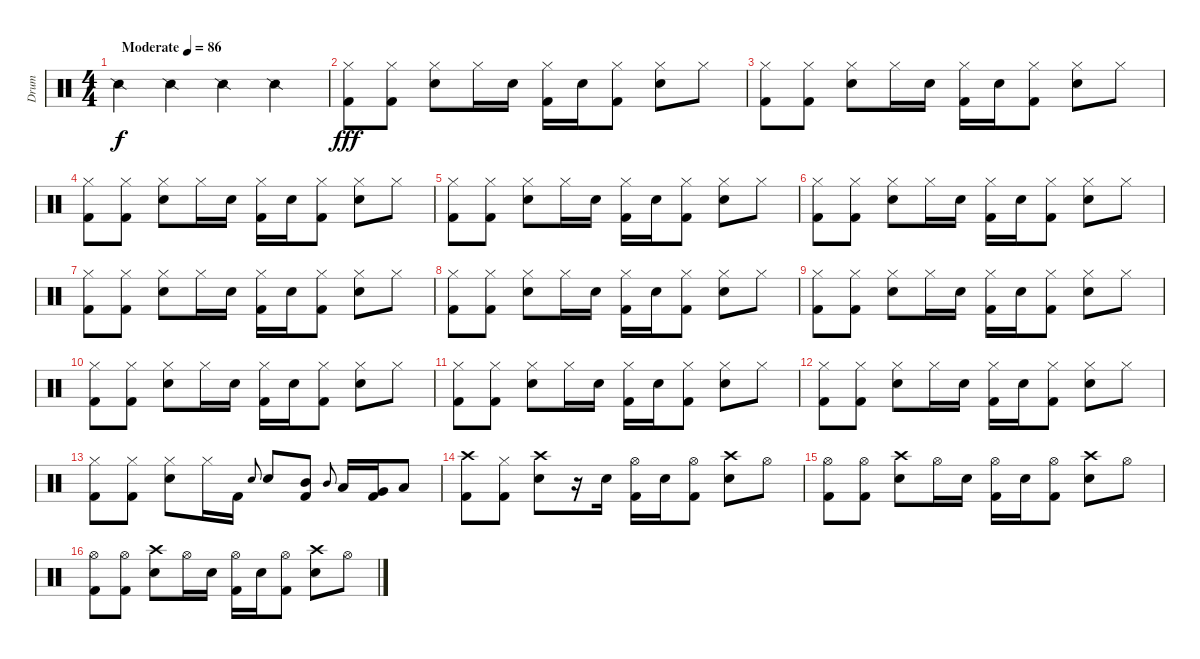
\track ("Drum" "Drum") {instrument percussion}
\staff {score}
\articulation defaults
\ts (4 4)
\tempo (86 "Moderate")
\clef neutral
\ks c "Snare (side stick) 2".4{dy f} "Snare (side stick) 2".4 "Snare (side stick) 2".4 "Snare (side stick) 2".4
|
("Hi-Hat (closed)" "Kick (hit) 2").8{dy fff} ("Hi-Hat (closed)" "Kick (hit) 2").8 ("Hi-Hat (closed)" "Electric Snare (hit)").8 "Hi-Hat (closed)".16 "Electric Snare (hit)".16 ("Hi-Hat (closed)" "Kick (hit) 2").16 "Electric Snare (hit)".16 ("Hi-Hat (closed)" "Kick (hit) 2").8 ("Hi-Hat (closed)" "Electric Snare (hit)").8 "Hi-Hat (closed)".8 |
("Hi-Hat (closed)" "Kick (hit) 2").8 ("Hi-Hat (closed)" "Kick (hit) 2").8 ("Hi-Hat (closed)" "Electric Snare (hit)").8 "Hi-Hat (closed)".16 "Electric Snare (hit)".16 ("Hi-Hat (closed)" "Kick (hit) 2").16 "Electric Snare (hit)".16 ("Hi-Hat (closed)" "Kick (hit) 2").8 ("Hi-Hat (closed)" "Electric Snare (hit)").8 "Hi-Hat (closed)".8 |
("Hi-Hat (closed)" "Kick (hit) 2").8 ("Hi-Hat (closed)" "Kick (hit) 2").8 ("Hi-Hat (closed)" "Electric Snare (hit)").8 "Hi-Hat (closed)".16 "Electric Snare (hit)".16 ("Hi-Hat (closed)" "Kick (hit) 2").16 "Electric Snare (hit)".16 ("Hi-Hat (closed)" "Kick (hit) 2").8 ("Hi-Hat (closed)" "Electric Snare (hit)").8 "Hi-Hat (closed)".8 |
("Hi-Hat (closed)" "Kick (hit) 2").8 ("Hi-Hat (closed)" "Kick (hit) 2").8 ("Hi-Hat (closed)" "Electric Snare (hit)").8 "Hi-Hat (closed)".16 "Electric Snare (hit)".16 ("Hi-Hat (closed)" "Kick (hit) 2").16 "Electric Snare (hit)".16 ("Hi-Hat (closed)" "Kick (hit) 2").8 ("Hi-Hat (closed)" "Electric Snare (hit)").8 "Hi-Hat (closed)".8 |
("Hi-Hat (closed)" "Kick (hit) 2").8 ("Hi-Hat (closed)" "Kick (hit) 2").8 ("Hi-Hat (closed)" "Electric Snare (hit)").8 "Hi-Hat (closed)".16 "Electric Snare (hit)".16 ("Hi-Hat (closed)" "Kick (hit) 2").16 "Electric Snare (hit)".16 ("Hi-Hat (closed)" "Kick (hit) 2").8 ("Hi-Hat (closed)" "Electric Snare (hit)").8 "Hi-Hat (closed)".8 |
("Hi-Hat (closed)" "Kick (hit) 2").8 ("Hi-Hat (closed)" "Kick (hit) 2").8 ("Hi-Hat (closed)" "Electric Snare (hit)").8 "Hi-Hat (closed)".16 "Electric Snare (hit)".16 ("Hi-Hat (closed)" "Kick (hit) 2").16 "Electric Snare (hit)".16 ("Hi-Hat (closed)" "Kick (hit) 2").8 ("Hi-Hat (closed)" "Electric Snare (hit)").8 "Hi-Hat (closed)".8 |
("Hi-Hat (closed)" "Kick (hit) 2").8 ("Hi-Hat (closed)" "Kick (hit) 2").8 ("Hi-Hat (closed)" "Electric Snare (hit)").8 "Hi-Hat (closed)".16 "Electric Snare (hit)".16 ("Hi-Hat (closed)" "Kick (hit) 2").16 "Electric Snare (hit)".16 ("Hi-Hat (closed)" "Kick (hit) 2").8 ("Hi-Hat (closed)" "Electric Snare (hit)").8 "Hi-Hat (closed)".8 |
("Hi-Hat (closed)" "Kick (hit) 2").8 ("Hi-Hat (closed)" "Kick (hit) 2").8 ("Hi-Hat (closed)" "Electric Snare (hit)").8 "Hi-Hat (closed)".16 "Electric Snare (hit)".16 ("Hi-Hat (closed)" "Kick (hit) 2").16 "Electric Snare (hit)".16 ("Hi-Hat (closed)" "Kick (hit) 2").8 ("Hi-Hat (closed)" "Electric Snare (hit)").8 "Hi-Hat (closed)".8 |
("Hi-Hat (closed)" "Kick (hit) 2").8 ("Hi-Hat (closed)" "Kick (hit) 2").8 ("Hi-Hat (closed)" "Electric Snare (hit)").8 "Hi-Hat (closed)".16 "Electric Snare (hit)".16 ("Hi-Hat (closed)" "Kick (hit) 2").16 "Electric Snare (hit)".16 ("Hi-Hat (closed)" "Kick (hit) 2").8 ("Hi-Hat (closed)" "Electric Snare (hit)").8 "Hi-Hat (closed)".8 |
("Hi-Hat (closed)" "Kick (hit) 2").8 ("Hi-Hat (closed)" "Kick (hit) 2").8 ("Hi-Hat (closed)" "Electric Snare (hit)").8 "Hi-Hat (closed)".16 "Electric Snare (hit)".16 ("Hi-Hat (closed)" "Kick (hit) 2").16 "Electric Snare (hit)".16 ("Hi-Hat (closed)" "Kick (hit) 2").8 ("Hi-Hat (closed)" "Electric Snare (hit)").8 "Hi-Hat (closed)".8 |
("Hi-Hat (closed)" "Kick (hit) 2").8 ("Hi-Hat (closed)" "Kick (hit) 2").8 ("Hi-Hat (closed)" "Electric Snare (hit)").8 "Hi-Hat (closed)".16 "Electric Snare (hit)".16 ("Hi-Hat (closed)" "Kick (hit) 2").16 "Electric Snare (hit)".16 ("Hi-Hat (closed)" "Kick (hit) 2").8 ("Hi-Hat (closed)" "Electric Snare (hit)").8 "Hi-Hat (closed)".8 |
("Hi-Hat (closed)" "Kick (hit) 2").8 ("Hi-Hat (closed)" "Kick (hit) 2").8 ("Hi-Hat (closed)" "Electric Snare (hit)").8 "Hi-Hat (closed)".16 "Kick (hit) 2".16 "Electric Snare (hit)".8{gr onbeat} "Electric Snare (hit)".8 ("Mid Tom (hit)" "Kick (hit) 2").8 "Mid Tom (hit)"{h}.8{gr onbeat} "Low Tom (hit)".16 ("Very Low Tom (hit)" "Kick (hit) 2").16 "Low Floor Tom (hit)".8 |
("Crash high (hit)" "Kick (hit) 2").8 ("Hi-Hat (closed)" "Kick (hit) 2").8 ("Crash high (hit)" "Electric Snare (hit)").8 r.16 "Electric Snare (hit)".16 ("Hi-Hat (open)" "Kick (hit) 2").16 "Electric Snare (hit)".16 ("Hi-Hat (open)" "Kick (hit) 2").8 ("Crash high (hit)" "Electric Snare (hit)").8 "Hi-Hat (open)".8 |
("Hi-Hat (open)" "Kick (hit) 2").8 ("Hi-Hat (open)" "Kick (hit) 2").8 ("Crash high (hit)" "Electric Snare (hit)").8 "Hi-Hat (open)".16 "Electric Snare (hit)".16 ("Hi-Hat (open)" "Kick (hit) 2").16 "Electric Snare (hit)".16 ("Hi-Hat (open)" "Kick (hit) 2").8 ("Crash high (hit)" "Electric Snare (hit)").8 "Hi-Hat (open)".8 |
("Hi-Hat (open)" "Kick (hit) 2").8 ("Hi-Hat (open)" "Kick (hit) 2").8 ("Crash high (hit)" "Electric Snare (hit)").8 "Hi-Hat (open)".16 "Electric Snare (hit)".16 ("Hi-Hat (open)" "Kick (hit) 2").16 "Electric Snare (hit)".16 ("Hi-Hat (open)" "Kick (hit) 2").8 ("Crash high (hit)" "Electric Snare (hit)").8 "Hi-Hat (open)".8
